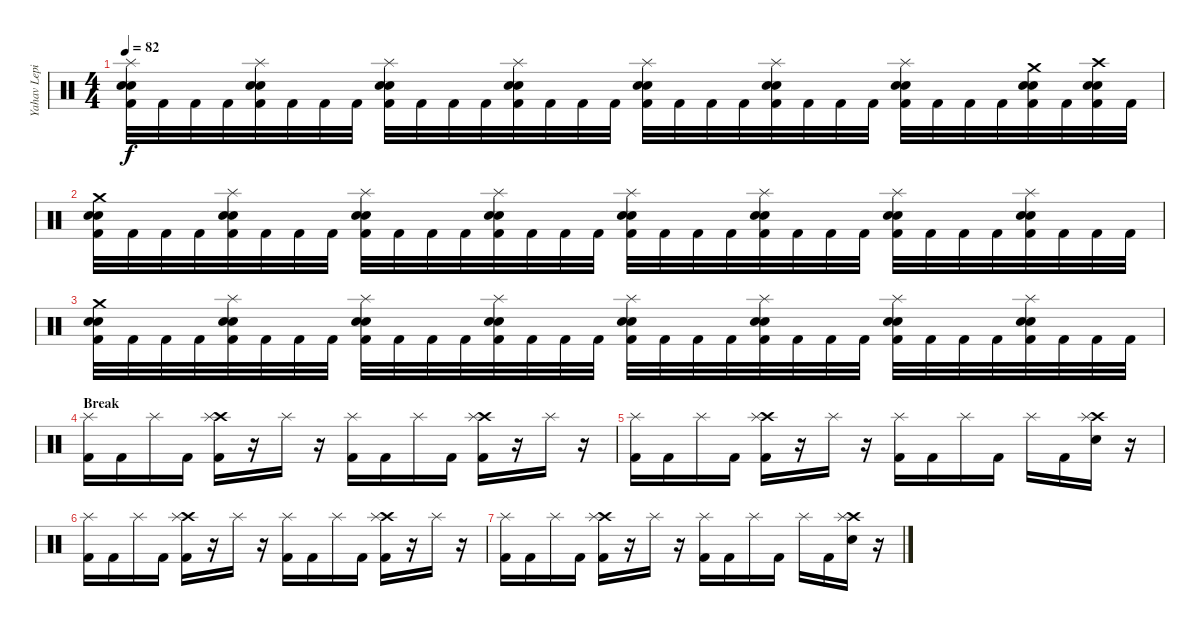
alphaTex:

\track ("Yahav Lepinsky" "Yahav Lepi") {instrument percussion}
\staff {score}
\articulation defaults
\ts (4 4)
\tempo 82
\clef neutral
\ks c
("Splash (hit)" "Electric Snare (hit)" "Electric Snare (hit)" "Kick (hit) 2").32{dy f} "Kick (hit) 2".32 "Kick (hit) 2".32 "Kick (hit) 2".32 ("Splash (hit)" "Electric Snare (hit)" "Electric Snare (hit)" "Kick (hit) 2").32 "Kick (hit) 2".32 "Kick (hit) 2".32 "Kick (hit) 2".32 ("Splash (hit)" "Electric Snare (hit)" "Electric Snare (hit)" "Kick (hit) 2").32 "Kick (hit) 2".32 "Kick (hit) 2".32 "Kick (hit) 2".32 ("Splash (hit)" "Electric Snare (hit)" "Electric Snare (hit)" "Kick (hit) 2").32 "Kick (hit) 2".32 "Kick (hit) 2".32 "Kick (hit) 2".32 ("Splash (hit)" "Electric Snare (hit)" "Electric Snare (hit)" "Kick (hit) 2").32 "Kick (hit) 2".32 "Kick (hit) 2".32 "Kick (hit) 2".32 ("Splash (hit)" "Electric Snare (hit)" "Electric Snare (hit)" "Kick (hit) 2").32 "Kick (hit) 2".32 "Kick (hit) 2".32 "Kick (hit) 2".32 ("Splash (hit)" "Electric Snare (hit)" "Electric Snare (hit)" "Kick (hit) 2").32 "Kick (hit) 2".32 "Kick (hit) 2".32 "Kick (hit) 2".32 ("Crash medium (hit)" "Electric Snare (hit)" "Electric Snare (hit)" "Kick (hit) 2").32 "Kick (hit) 2".32 ("Crash high (hit)" "Electric Snare (hit)" "Electric Snare (hit)" "Kick (hit) 2").32 "Kick (hit) 2".32 |
("Crash medium (hit)" "Electric Snare (hit)" "Electric Snare (hit)" "Kick (hit) 2").32 "Kick (hit) 2".32 "Kick (hit) 2".32 "Kick (hit) 2".32 ("Splash (hit)" "Electric Snare (hit)" "Electric Snare (hit)" "Kick (hit) 2").32 "Kick (hit) 2".32 "Kick (hit) 2".32 "Kick (hit) 2".32 ("Splash (hit)" "Electric Snare (hit)" "Electric Snare (hit)" "Kick (hit) 2").32 "Kick (hit) 2".32 "Kick (hit) 2".32 "Kick (hit) 2".32 ("Splash (hit)" "Electric Snare (hit)" "Electric Snare (hit)" "Kick (hit) 2").32 "Kick (hit) 2".32 "Kick (hit) 2".32 "Kick (hit) 2".32 ("Splash (hit)" "Electric Snare (hit)" "Electric Snare (hit)" "Kick (hit) 2").32 "Kick (hit) 2".32 "Kick (hit) 2".32 "Kick (hit) 2".32 ("Splash (hit)" "Electric Snare (hit)" "Electric Snare (hit)" "Kick (hit) 2").32 "Kick (hit) 2".32 "Kick (hit) 2".32 "Kick (hit) 2".32 ("Splash (hit)" "Electric Snare (hit)" "Electric Snare (hit)" "Kick (hit) 2").32 "Kick (hit) 2".32 "Kick (hit) 2".32 "Kick (hit) 2".32 ("Splash (hit)" "Electric Snare (hit)" "Electric Snare (hit)" "Kick (hit) 2").32 "Kick (hit) 2".32 "Kick (hit) 2".32 "Kick (hit) 2".32 |
("Crash medium (hit)" "Electric Snare (hit)" "Electric Snare (hit)" "Kick (hit) 2").32 "Kick (hit) 2".32 "Kick (hit) 2".32 "Kick (hit) 2".32 ("Splash (hit)" "Electric Snare (hit)" "Electric Snare (hit)" "Kick (hit) 2").32 "Kick (hit) 2".32 "Kick (hit) 2".32 "Kick (hit) 2".32 ("Splash (hit)" "Electric Snare (hit)" "Electric Snare (hit)" "Kick (hit) 2").32 "Kick (hit) 2".32 "Kick (hit) 2".32 "Kick (hit) 2".32 ("Splash (hit)" "Electric Snare (hit)" "Electric Snare (hit)" "Kick (hit) 2").32 "Kick (hit) 2".32 "Kick (hit) 2".32 "Kick (hit) 2".32 ("Splash (hit)" "Electric Snare (hit)" "Electric Snare (hit)" "Kick (hit) 2").32 "Kick (hit) 2".32 "Kick (hit) 2".32 "Kick (hit) 2".32 ("Splash (hit)" "Electric Snare (hit)" "Electric Snare (hit)" "Kick (hit) 2").32 "Kick (hit) 2".32 "Kick (hit) 2".32 "Kick (hit) 2".32 ("Splash (hit)" "Electric Snare (hit)" "Electric Snare (hit)" "Kick (hit) 2").32 "Kick (hit) 2".32 "Kick (hit) 2".32 "Kick (hit) 2".32 ("Splash (hit)" "Electric Snare (hit)" "Electric Snare (hit)" "Kick (hit) 2").32 "Kick (hit) 2".32 "Kick (hit) 2".32 "Kick (hit) 2".32 |
\section ("" "Break")
("Splash (hit)" "Kick (hit) 2").16 "Kick (hit) 2".16 "Splash (hit)".16 "Kick (hit) 2".16 ("Crash high (hit)" "Splash (hit)" "Kick (hit) 2").16 r.16 "Splash (hit)".16 r.16 ("Splash (hit)" "Kick (hit) 2").16 "Kick (hit) 2".16 "Splash (hit)".16 "Kick (hit) 2".16 ("Crash high (hit)" "Splash (hit)" "Kick (hit) 2").16 r.16 "Splash (hit)".16 r.16 |
("Splash (hit)" "Kick (hit) 2").16 "Kick (hit) 2".16 "Splash (hit)".16 "Kick (hit) 2".16 ("Crash high (hit)" "Splash (hit)" "Kick (hit) 2").16 r.16 "Splash (hit)".16 r.16 ("Splash (hit)" "Kick (hit) 2").16 "Kick (hit) 2".16 "Splash (hit)".16 "Kick (hit) 2".16 "Splash (hit)".16 "Kick (hit) 2".16 ("Crash high (hit)" "Electric Snare (hit)" "Splash (hit)").16 r.16 |
("Splash (hit)" "Kick (hit) 2").16 "Kick (hit) 2".16 "Splash (hit)".16 "Kick (hit) 2".16 ("Crash high (hit)" "Splash (hit)" "Kick (hit) 2").16 r.16 "Splash (hit)".16 r.16 ("Splash (hit)" "Kick (hit) 2").16 "Kick (hit) 2".16 "Splash (hit)".16 "Kick (hit) 2".16 ("Crash high (hit)" "Splash (hit)" "Kick (hit) 2").16 r.16 "Splash (hit)".16 r.16 |
("Splash (hit)" "Kick (hit) 2").16 "Kick (hit) 2".16 "Splash (hit)".16 "Kick (hit) 2".16 ("Crash high (hit)" "Splash (hit)" "Kick (hit) 2").16 r.16 "Splash (hit)".16 r.16 ("Splash (hit)" "Kick (hit) 2").16 "Kick (hit) 2".16 "Splash (hit)".16 "Kick (hit) 2".16 "Splash (hit)".16 "Kick (hit) 2".16 ("Crash high (hit)" "Electric Snare (hit)" "Splash (hit)").16 r.16
